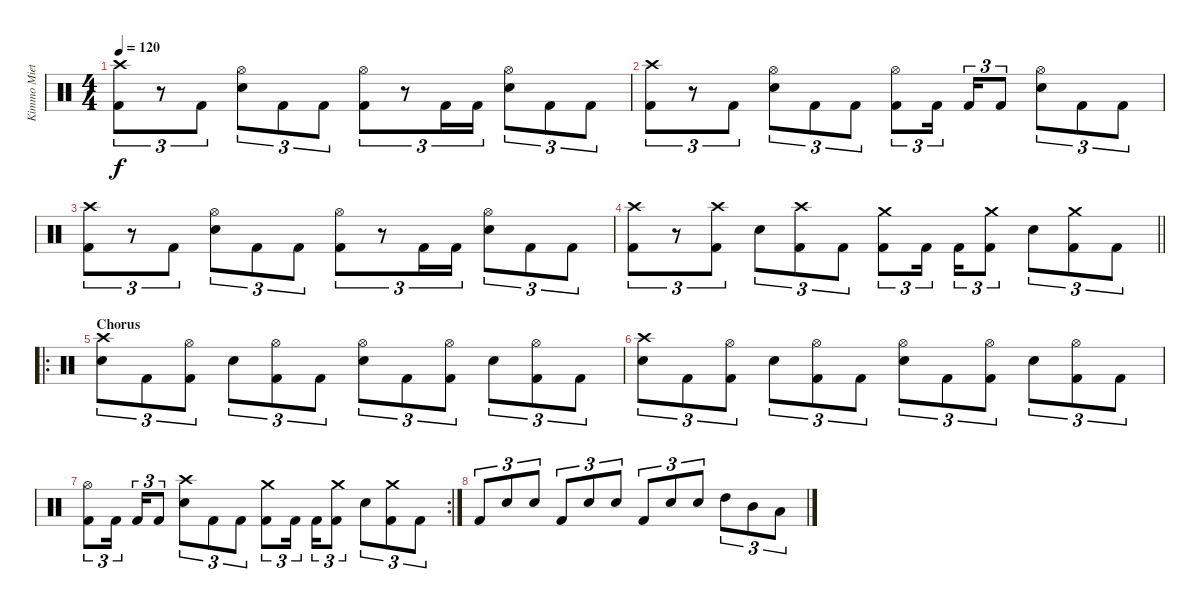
\track ("Kimmo Miettinen" "Kimmo Miet") {instrument percussion}
\staff {score}
\articulation defaults
\ts (4 4)
\tempo 120
\clef neutral
\ks c
("Crash high (hit)" "Kick (hit) 2").8{tu (3 2) dy f} r.8{tu (3 2)} "Kick (hit) 2".8{tu (3 2)} ("Hi-Hat (open)" "Electric Snare (hit)").8{tu (3 2)} "Kick (hit) 2".8{tu (3 2)} "Kick (hit) 2".8{tu (3 2)} ("Hi-Hat (open)" "Kick (hit) 2").8{tu (3 2)} r.8{tu (3 2)} "Kick (hit) 2".16{tu (3 2)} "Kick (hit) 2".16{tu (3 2)} ("Hi-Hat (open)" "Electric Snare (hit)").8{tu (3 2)} "Kick (hit) 2".8{tu (3 2)} "Kick (hit) 2".8{tu (3 2)} |
("Crash high (hit)" "Kick (hit) 2").8{tu (3 2)} r.8{tu (3 2)} "Kick (hit) 2".8{tu (3 2)} ("Hi-Hat (open)" "Electric Snare (hit)").8{tu (3 2)} "Kick (hit) 2".8{tu (3 2)} "Kick (hit) 2".8{tu (3 2)} ("Hi-Hat (open)" "Kick (hit) 2").8{tu (3 2)} "Kick (hit) 2".16{tu (3 2) beam splitsecondary} "Kick (hit) 2".16{tu (3 2)} "Kick (hit) 2".8{tu (3 2)} ("Hi-Hat (open)" "Electric Snare (hit)").8{tu (3 2)} "Kick (hit) 2".8{tu (3 2)} "Kick (hit) 2".8{tu (3 2)} |
("Crash high (hit)" "Kick (hit) 2").8{tu (3 2)} r.8{tu (3 2)} "Kick (hit) 2".8{tu (3 2)} ("Hi-Hat (open)" "Electric Snare (hit)").8{tu (3 2)} "Kick (hit) 2".8{tu (3 2)} "Kick (hit) 2".8{tu (3 2)} ("Hi-Hat (open)" "Kick (hit) 2").8{tu (3 2)} r.8{tu (3 2)} "Kick (hit) 2".16{tu (3 2)} "Kick (hit) 2".16{tu (3 2)} ("Hi-Hat (open)" "Electric Snare (hit)").8{tu (3 2)} "Kick (hit) 2".8{tu (3 2)} "Kick (hit) 2".8{tu (3 2)} |
\barLineRight lightlight
("Crash high (hit)" "Kick (hit) 2").8{tu (3 2)} r.8{tu (3 2)} ("Crash high (hit)" "Kick (hit) 2").8{tu (3 2)} "Electric Snare (hit)".8{tu (3 2)} ("Crash high (hit)" "Kick (hit) 2").8{tu (3 2)} "Kick (hit) 2".8{tu (3 2)} ("Crash medium (hit)" "Kick (hit) 2").8{tu (3 2)} "Kick (hit) 2".16{tu (3 2) beam splitsecondary} "Kick (hit) 2".16{tu (3 2)} ("Crash medium (hit)" "Kick (hit) 2").8{tu (3 2)} "Electric Snare (hit)".8{tu (3 2)} ("Crash medium (hit)" "Kick (hit) 2").8{tu (3 2)} "Kick (hit) 2".8{tu (3 2)} |
\ro
\section ("" "Chorus")
("Crash high (hit)" "Electric Snare (hit)").8{tu (3 2)} "Kick (hit) 2".8{tu (3 2)} ("Hi-Hat (open)" "Kick (hit) 2").8{tu (3 2)} "Electric Snare (hit)".8{tu (3 2)} ("Hi-Hat (open)" "Kick (hit) 2").8{tu (3 2)} "Kick (hit) 2".8{tu (3 2)} ("Hi-Hat (open)" "Electric Snare (hit)").8{tu (3 2)} "Kick (hit) 2".8{tu (3 2)} ("Hi-Hat (open)" "Kick (hit) 2").8{tu (3 2)} "Electric Snare (hit)".8{tu (3 2)} ("Hi-Hat (open)" "Kick (hit) 2").8{tu (3 2)} "Kick (hit) 2".8{tu (3 2)} |
("Crash high (hit)" "Electric Snare (hit)").8{tu (3 2)} "Kick (hit) 2".8{tu (3 2)} ("Hi-Hat (open)" "Kick (hit) 2").8{tu (3 2)} "Electric Snare (hit)".8{tu (3 2)} ("Hi-Hat (open)" "Kick (hit) 2").8{tu (3 2)} "Kick (hit) 2".8{tu (3 2)} ("Hi-Hat (open)" "Electric Snare (hit)").8{tu (3 2)} "Kick (hit) 2".8{tu (3 2)} ("Hi-Hat (open)" "Kick (hit) 2").8{tu (3 2)} "Electric Snare (hit)".8{tu (3 2)} ("Hi-Hat (open)" "Kick (hit) 2").8{tu (3 2)} "Kick (hit) 2".8{tu (3 2)} |
\rc 2
("Hi-Hat (open)" "Kick (hit) 2").8{tu (3 2)} "Kick (hit) 2".16{tu (3 2) beam splitsecondary} "Kick (hit) 2".16{tu (3 2)} "Kick (hit) 2".8{tu (3 2)} ("Crash high (hit)" "Electric Snare (hit)").8{tu (3 2)} "Kick (hit) 2".8{tu (3 2)} "Kick (hit) 2".8{tu (3 2)} ("Crash medium (hit)" "Kick (hit) 2").8{tu (3 2)} "Kick (hit) 2".16{tu (3 2) beam splitsecondary} "Kick (hit) 2".16{tu (3 2)} ("Crash medium (hit)" "Kick (hit) 2").8{tu (3 2)} "Electric Snare (hit)".8{tu (3 2)} ("Crash medium (hit)" "Kick (hit) 2").8{tu (3 2)} "Kick (hit) 2".8{tu (3 2)} |
"Kick (hit) 2".8{tu (3 2)} "Electric Snare (hit)".8{tu (3 2)} "Electric Snare (hit)".8{tu (3 2)} "Kick (hit) 2".8{tu (3 2)} "Electric Snare (hit)".8{tu (3 2)} "Electric Snare (hit)".8{tu (3 2)} "Kick (hit) 2".8{tu (3 2)} "Electric Snare (hit)".8{tu (3 2)} "Electric Snare (hit)".8{tu (3 2)} "High Tom (hit)".8{tu (3 2)} "Mid Tom (hit)".8{tu (3 2)} "Low Tom (hit)".8{tu (3 2)}
